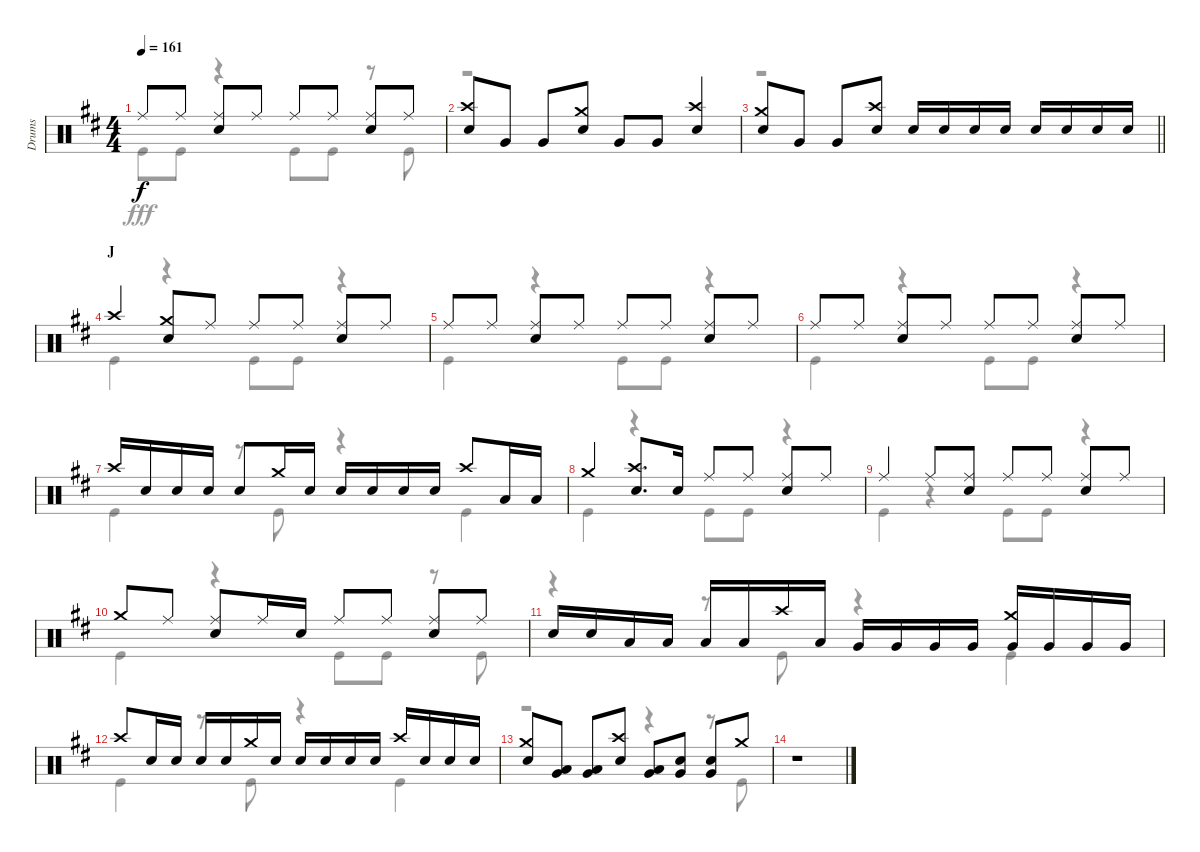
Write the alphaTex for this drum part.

\track ("Drums" "Drums") {instrument percussion}
\staff {score}
\articulation defaults
\voice
\ts (4 4)
\tempo 161
\clef neutral
\ks d "Ride (middle)".8{dy f} "Ride (middle)".8
("Ride (middle)" "Snare (hit) 2").8 "Ride (middle)".8 "Ride (middle)".8 "Ride (middle)".8 ("Ride (middle)" "Snare (hit) 2").8 "Ride (middle)".8 |
("Crash high (hit)" "Snare (hit) 2").8 "Very Low Tom (hit)".8 "Very Low Tom (hit)".8 ("Crash medium (hit)" "Snare (hit) 2").8 "Very Low Tom (hit)".8 "Very Low Tom (hit)".8 ("Crash high (hit)" "Snare (hit) 2").4 |
\barLineRight lightlight
("Crash medium (hit)" "Snare (hit) 2").8 "Very Low Tom (hit)".8 "Very Low Tom (hit)".8 ("Crash high (hit)" "Snare (hit) 2").8 "Snare (hit) 2".16 "Snare (hit) 2".16 "Snare (hit) 2".16 "Snare (hit) 2".16 "Snare (hit) 2".16 "Snare (hit) 2".16 "Snare (hit) 2".16 "Snare (hit) 2".16 |
\section ("" "J")
"Crash high (hit)".4 ("Crash medium (hit)" "Snare (hit) 2").8 "Ride (middle)".8 "Ride (middle)".8 "Ride (middle)".8 ("Ride (middle)" "Snare (hit) 2").8 "Ride (middle)".8 |
"Ride (middle)".8 "Ride (middle)".8 ("Ride (middle)" "Snare (hit) 2").8 "Ride (middle)".8 "Ride (middle)".8 "Ride (middle)".8 ("Ride (middle)" "Snare (hit) 2").8 "Ride (middle)".8 |
"Ride (middle)".8 "Ride (middle)".8 ("Ride (middle)" "Snare (hit) 2").8 "Ride (middle)".8 "Ride (middle)".8 "Ride (middle)".8 ("Ride (middle)" "Snare (hit) 2").8 "Ride (middle)".8 |
"Crash high (hit)".16 "Snare (hit) 2".16 "Snare (hit) 2".16 "Snare (hit) 2".16 "Snare (hit) 2".8 "Crash medium (hit)".16 "Snare (hit) 2".16 "Snare (hit) 2".16 "Snare (hit) 2".16 "Snare (hit) 2".16 "Snare (hit) 2".16 "Crash high (hit)".8 "Low Tom (hit)".16 "Low Tom (hit)".16 |
"Crash medium (hit)".4 ("Crash high (hit)" "Snare (hit) 2").8{d} "Snare (hit) 2".16 "Ride (middle)".8 "Ride (middle)".8 ("Ride (middle)" "Snare (hit) 2").8 "Ride (middle)".8 |
"Ride (middle)".4 "Ride (middle)".8 ("Ride (middle)" "Snare (hit) 2").8 "Ride (middle)".8 "Ride (middle)".8 ("Ride (middle)" "Snare (hit) 2").8 "Ride (middle)".8 |
"Crash medium (hit)".8 "Ride (middle)".8 ("Ride (middle)" "Snare (hit) 2").8 "Ride (middle)".16 "Snare (hit) 2".16 "Ride (middle)".8 "Ride (middle)".8 ("Ride (middle)" "Snare (hit) 2").8 "Ride (middle)".8 |
"Snare (hit) 2".16 "Snare (hit) 2".16 "Low Tom (hit)".16 "Low Tom (hit)".16 "Low Tom (hit)".16 "Low Tom (hit)".16 "Crash high (hit)".16 "Low Tom (hit)".16 "Very Low Tom (hit)".16 "Very Low Tom (hit)".16 "Very Low Tom (hit)".16 "Very Low Tom (hit)".16 ("Crash medium (hit)" "Very Low Tom (hit)").16 "Very Low Tom (hit)".16 "Very Low Tom (hit)".16 "Very Low Tom (hit)".16 |
"Crash high (hit)".8 "Snare (hit) 2".16 "Snare (hit) 2".16 "Snare (hit) 2".16 "Snare (hit) 2".16 "Crash medium (hit)".16 "Snare (hit) 2".16 "Snare (hit) 2".16 "Snare (hit) 2".16 "Snare (hit) 2".16 "Snare (hit) 2".16 "Crash high (hit)".16 "Snare (hit) 2".16 "Snare (hit) 2".16 "Snare (hit) 2".16 |
("Crash medium (hit)" "Snare (hit) 2").8 ("Low Tom (hit)" "Very Low Tom (hit)").8 ("Low Tom (hit)" "Very Low Tom (hit)").8 ("Crash high (hit)" "Snare (hit) 2").8 ("Low Tom (hit)" "Very Low Tom (hit)").8 ("Snare (hit) 2" "Very Low Tom (hit)").8 ("Snare (hit) 2" "Very Low Tom (hit)").8 "Crash medium (hit)".8 |
r.1
\voice
\clef neutral
\ottava regular
\simile none
\ks d "Kick (hit)".8{dy fff} "Kick (hit)".8
r.4 "Kick (hit)".8 "Kick (hit)".8 r.8 "Kick (hit)".8 |
r.1 |
\barLineRight lightlight
r.1 |
"Kick (hit)".4 r.4 "Kick (hit)".8 "Kick (hit)".8 r.4 |
"Kick (hit)".4 r.4 "Kick (hit)".8 "Kick (hit)".8 r.4 |
"Kick (hit)".4 r.4 "Kick (hit)".8 "Kick (hit)".8 r.4 |
"Kick (hit)".4 r.8 "Kick (hit)".8 r.4 "Kick (hit)".4 |
"Kick (hit)".4 r.4 "Kick (hit)".8 "Kick (hit)".8 r.4 |
"Kick (hit)".4 r.4 "Kick (hit)".8 "Kick (hit)".8 r.4 |
"Kick (hit)".4 r.4 "Kick (hit)".8 "Kick (hit)".8 r.8 "Kick (hit)".8 |
r.4 r.8 "Kick (hit)".8 r.4 "Kick (hit)".4 |
"Kick (hit)".4 r.8 "Kick (hit)".8 r.4 "Kick (hit)".4 |
r.2 r.4 r.8 "Kick (hit)".8 |
r.1
